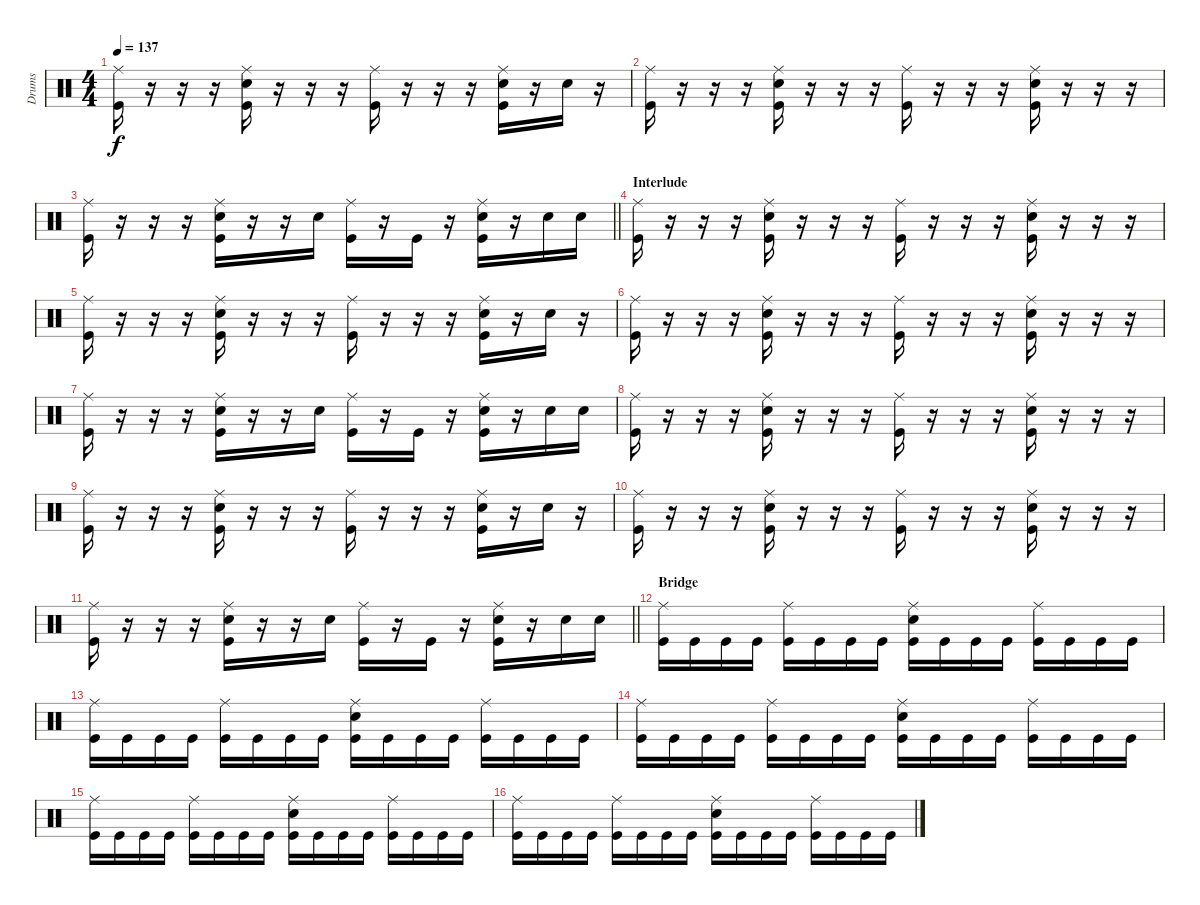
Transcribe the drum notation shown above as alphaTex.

\track ("Drums" "Drums") {instrument percussion}
\staff {score}
\articulation defaults
\ts (4 4)
\tempo 137
\clef neutral
\ks c
("Ride (middle)" "Kick (hit)").16{dy f} r.16 r.16 r.16 ("Ride (middle)" "Snare (hit) 2" "Kick (hit)").16 r.16 r.16 r.16 ("Ride (middle)" "Kick (hit)").16 r.16 r.16 r.16 ("Ride (middle)" "Snare (hit) 2" "Kick (hit)").16 r.16 "Snare (hit) 2".16 r.16 |
("Ride (middle)" "Kick (hit)").16 r.16 r.16 r.16 ("Ride (middle)" "Snare (hit) 2" "Kick (hit)").16 r.16 r.16 r.16 ("Ride (middle)" "Kick (hit)").16 r.16 r.16 r.16 ("Ride (middle)" "Snare (hit) 2" "Kick (hit)").16 r.16 r.16 r.16 |
\barLineRight lightlight
("Ride (middle)" "Kick (hit)").16 r.16 r.16 r.16 ("Ride (middle)" "Snare (hit) 2" "Kick (hit)").16 r.16 r.16 "Snare (hit) 2".16 ("Ride (middle)" "Kick (hit)").16 r.16 "Kick (hit)".16 r.16 ("Ride (middle)" "Snare (hit) 2" "Kick (hit)").16 r.16 "Snare (hit) 2".16 "Snare (hit) 2".16 |
\section ("" "Interlude")
("Ride (middle)" "Kick (hit)").16 r.16 r.16 r.16 ("Ride (middle)" "Snare (hit) 2" "Kick (hit)").16 r.16 r.16 r.16 ("Ride (middle)" "Kick (hit)").16 r.16 r.16 r.16 ("Ride (middle)" "Snare (hit) 2" "Kick (hit)").16 r.16 r.16 r.16 |
("Ride (middle)" "Kick (hit)").16 r.16 r.16 r.16 ("Ride (middle)" "Snare (hit) 2" "Kick (hit)").16 r.16 r.16 r.16 ("Ride (middle)" "Kick (hit)").16 r.16 r.16 r.16 ("Ride (middle)" "Snare (hit) 2" "Kick (hit)").16 r.16 "Snare (hit) 2".16 r.16 |
("Ride (middle)" "Kick (hit)").16 r.16 r.16 r.16 ("Ride (middle)" "Snare (hit) 2" "Kick (hit)").16 r.16 r.16 r.16 ("Ride (middle)" "Kick (hit)").16 r.16 r.16 r.16 ("Ride (middle)" "Snare (hit) 2" "Kick (hit)").16 r.16 r.16 r.16 |
("Ride (middle)" "Kick (hit)").16 r.16 r.16 r.16 ("Ride (middle)" "Snare (hit) 2" "Kick (hit)").16 r.16 r.16 "Snare (hit) 2".16 ("Ride (middle)" "Kick (hit)").16 r.16 "Kick (hit)".16 r.16 ("Ride (middle)" "Snare (hit) 2" "Kick (hit)").16 r.16 "Snare (hit) 2".16 "Snare (hit) 2".16 |
("Ride (middle)" "Kick (hit)").16 r.16 r.16 r.16 ("Ride (middle)" "Snare (hit) 2" "Kick (hit)").16 r.16 r.16 r.16 ("Ride (middle)" "Kick (hit)").16 r.16 r.16 r.16 ("Ride (middle)" "Snare (hit) 2" "Kick (hit)").16 r.16 r.16 r.16 |
("Ride (middle)" "Kick (hit)").16 r.16 r.16 r.16 ("Ride (middle)" "Snare (hit) 2" "Kick (hit)").16 r.16 r.16 r.16 ("Ride (middle)" "Kick (hit)").16 r.16 r.16 r.16 ("Ride (middle)" "Snare (hit) 2" "Kick (hit)").16 r.16 "Snare (hit) 2".16 r.16 |
("Ride (middle)" "Kick (hit)").16 r.16 r.16 r.16 ("Ride (middle)" "Snare (hit) 2" "Kick (hit)").16 r.16 r.16 r.16 ("Ride (middle)" "Kick (hit)").16 r.16 r.16 r.16 ("Ride (middle)" "Snare (hit) 2" "Kick (hit)").16 r.16 r.16 r.16 |
\barLineRight lightlight
("Ride (middle)" "Kick (hit)").16 r.16 r.16 r.16 ("Ride (middle)" "Snare (hit) 2" "Kick (hit)").16 r.16 r.16 "Snare (hit) 2".16 ("Ride (middle)" "Kick (hit)").16 r.16 "Kick (hit)".16 r.16 ("Ride (middle)" "Snare (hit) 2" "Kick (hit)").16 r.16 "Snare (hit) 2".16 "Snare (hit) 2".16 |
\section ("" "Bridge")
("Ride (middle)" "Kick (hit)").16 "Kick (hit)".16 "Kick (hit)".16 "Kick (hit)".16 ("Ride (middle)" "Kick (hit)").16 "Kick (hit)".16 "Kick (hit)".16 "Kick (hit)".16 ("Ride (middle)" "Snare (hit) 2" "Kick (hit)").16 "Kick (hit)".16 "Kick (hit)".16 "Kick (hit)".16 ("Ride (middle)" "Kick (hit)").16 "Kick (hit)".16 "Kick (hit)".16 "Kick (hit)".16 |
("Ride (middle)" "Kick (hit)").16 "Kick (hit)".16 "Kick (hit)".16 "Kick (hit)".16 ("Ride (middle)" "Kick (hit)").16 "Kick (hit)".16 "Kick (hit)".16 "Kick (hit)".16 ("Ride (middle)" "Snare (hit) 2" "Kick (hit)").16 "Kick (hit)".16 "Kick (hit)".16 "Kick (hit)".16 ("Ride (middle)" "Kick (hit)").16 "Kick (hit)".16 "Kick (hit)".16 "Kick (hit)".16 |
("Ride (middle)" "Kick (hit)").16 "Kick (hit)".16 "Kick (hit)".16 "Kick (hit)".16 ("Ride (middle)" "Kick (hit)").16 "Kick (hit)".16 "Kick (hit)".16 "Kick (hit)".16 ("Ride (middle)" "Snare (hit) 2" "Kick (hit)").16 "Kick (hit)".16 "Kick (hit)".16 "Kick (hit)".16 ("Ride (middle)" "Kick (hit)").16 "Kick (hit)".16 "Kick (hit)".16 "Kick (hit)".16 |
("Ride (middle)" "Kick (hit)").16 "Kick (hit)".16 "Kick (hit)".16 "Kick (hit)".16 ("Ride (middle)" "Kick (hit)").16 "Kick (hit)".16 "Kick (hit)".16 "Kick (hit)".16 ("Ride (middle)" "Snare (hit) 2" "Kick (hit)").16 "Kick (hit)".16 "Kick (hit)".16 "Kick (hit)".16 ("Ride (middle)" "Kick (hit)").16 "Kick (hit)".16 "Kick (hit)".16 "Kick (hit)".16 |
("Ride (middle)" "Kick (hit)").16 "Kick (hit)".16 "Kick (hit)".16 "Kick (hit)".16 ("Ride (middle)" "Kick (hit)").16 "Kick (hit)".16 "Kick (hit)".16 "Kick (hit)".16 ("Ride (middle)" "Snare (hit) 2" "Kick (hit)").16 "Kick (hit)".16 "Kick (hit)".16 "Kick (hit)".16 ("Ride (middle)" "Kick (hit)").16 "Kick (hit)".16 "Kick (hit)".16 "Kick (hit)".16
